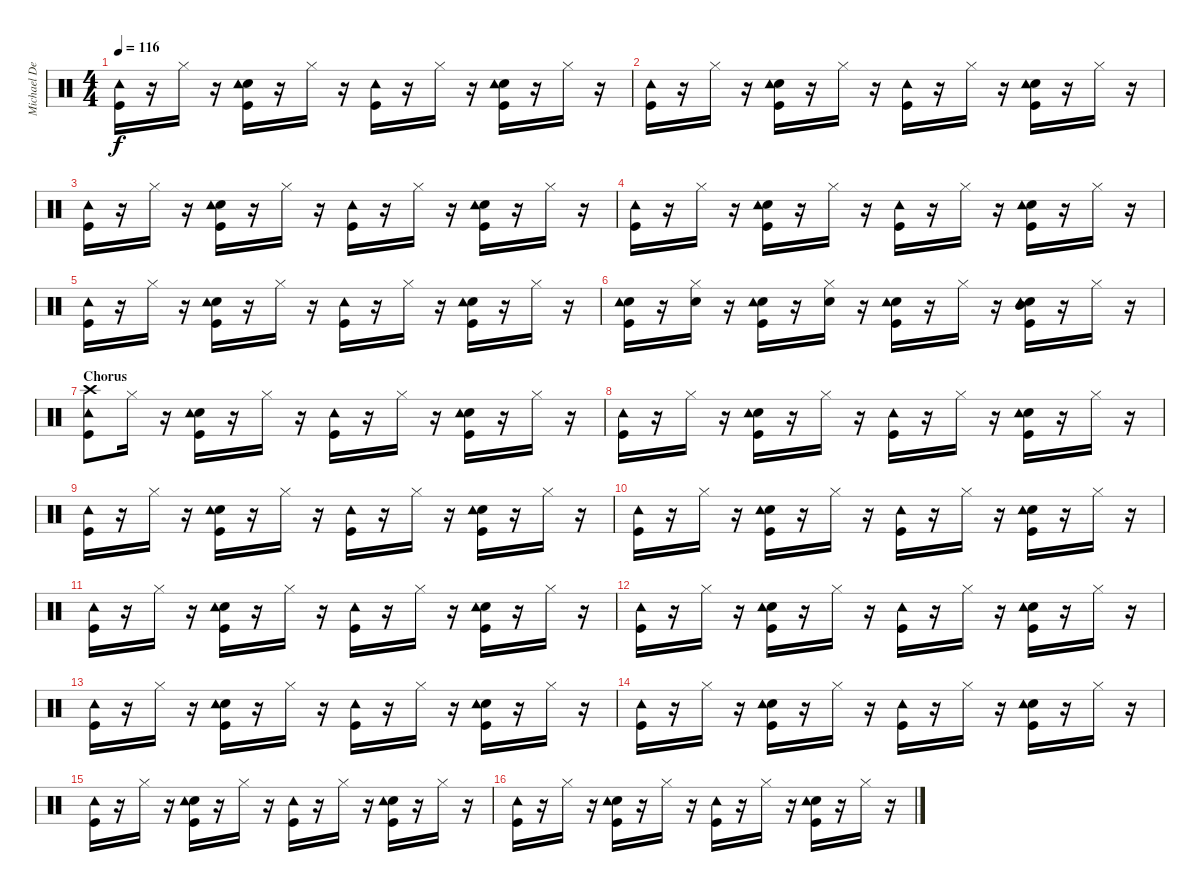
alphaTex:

\track ("Michael DeRosier" "Michael De") {instrument percussion}
\staff {score}
\articulation defaults
\ts (4 4)
\tempo 116
\clef neutral
\ks c
("Kick (hit)" "Tambourine (hit)").16{dy f} r.16 "Hi-Hat (closed)".16 r.16 ("Kick (hit)" "Electric Snare (hit)" "Tambourine (hit)").16 r.16 "Hi-Hat (closed)".16 r.16 ("Kick (hit)" "Tambourine (hit)").16 r.16 "Hi-Hat (closed)".16 r.16 ("Kick (hit)" "Electric Snare (hit)" "Tambourine (hit)").16 r.16 "Hi-Hat (closed)".16 r.16 |
("Kick (hit)" "Tambourine (hit)").16 r.16 "Hi-Hat (closed)".16 r.16 ("Kick (hit)" "Electric Snare (hit)" "Tambourine (hit)").16 r.16 "Hi-Hat (closed)".16 r.16 ("Kick (hit)" "Tambourine (hit)").16 r.16 "Hi-Hat (closed)".16 r.16 ("Kick (hit)" "Electric Snare (hit)" "Tambourine (hit)").16 r.16 "Hi-Hat (closed)".16 r.16 |
("Kick (hit)" "Tambourine (hit)").16 r.16 "Hi-Hat (closed)".16 r.16 ("Kick (hit)" "Electric Snare (hit)" "Tambourine (hit)").16 r.16 "Hi-Hat (closed)".16 r.16 ("Kick (hit)" "Tambourine (hit)").16 r.16 "Hi-Hat (closed)".16 r.16 ("Kick (hit)" "Electric Snare (hit)" "Tambourine (hit)").16 r.16 "Hi-Hat (closed)".16 r.16 |
("Kick (hit)" "Tambourine (hit)").16 r.16 "Hi-Hat (closed)".16 r.16 ("Kick (hit)" "Electric Snare (hit)" "Tambourine (hit)").16 r.16 "Hi-Hat (closed)".16 r.16 ("Kick (hit)" "Tambourine (hit)").16 r.16 "Hi-Hat (closed)".16 r.16 ("Kick (hit)" "Electric Snare (hit)" "Tambourine (hit)").16 r.16 "Hi-Hat (closed)".16 r.16 |
("Kick (hit)" "Tambourine (hit)").16 r.16 "Hi-Hat (closed)".16 r.16 ("Kick (hit)" "Electric Snare (hit)" "Tambourine (hit)").16 r.16 "Hi-Hat (closed)".16 r.16 ("Kick (hit)" "Tambourine (hit)").16 r.16 "Hi-Hat (closed)".16 r.16 ("Kick (hit)" "Electric Snare (hit)" "Tambourine (hit)").16 r.16 "Hi-Hat (closed)".16 r.16 |
("Kick (hit)" "Electric Snare (hit)" "Tambourine (hit)").16 r.16 ("Electric Snare (hit)" "Hi-Hat (closed)").16 r.16 ("Kick (hit)" "Electric Snare (hit)" "Tambourine (hit)").16 r.16 ("Electric Snare (hit)" "Hi-Hat (closed)").16 r.16 ("Kick (hit)" "Electric Snare (hit)" "Tambourine (hit)").16 r.16 "Hi-Hat (closed)".16 r.16 ("Kick (hit)" "Electric Snare (hit)" "Mid Tom (hit)" "Tambourine (hit)").16 r.16 "Hi-Hat (closed)".16 r.16 |
\section ("" "Chorus")
("Kick (hit)" "Crash high (hit)" "Tambourine (hit)").8 "Hi-Hat (closed)".16 r.16 ("Kick (hit)" "Electric Snare (hit)" "Tambourine (hit)").16 r.16 "Hi-Hat (closed)".16 r.16 ("Kick (hit)" "Tambourine (hit)").16 r.16 "Hi-Hat (closed)".16 r.16 ("Kick (hit)" "Electric Snare (hit)" "Tambourine (hit)").16 r.16 "Hi-Hat (closed)".16 r.16 |
("Kick (hit)" "Tambourine (hit)").16 r.16 "Hi-Hat (closed)".16 r.16 ("Kick (hit)" "Electric Snare (hit)" "Tambourine (hit)").16 r.16 "Hi-Hat (closed)".16 r.16 ("Kick (hit)" "Tambourine (hit)").16 r.16 "Hi-Hat (closed)".16 r.16 ("Kick (hit)" "Electric Snare (hit)" "Tambourine (hit)").16 r.16 "Hi-Hat (closed)".16 r.16 |
("Kick (hit)" "Tambourine (hit)").16 r.16 "Hi-Hat (closed)".16 r.16 ("Kick (hit)" "Electric Snare (hit)" "Tambourine (hit)").16 r.16 "Hi-Hat (closed)".16 r.16 ("Kick (hit)" "Tambourine (hit)").16 r.16 "Hi-Hat (closed)".16 r.16 ("Kick (hit)" "Electric Snare (hit)" "Tambourine (hit)").16 r.16 "Hi-Hat (closed)".16 r.16 |
("Kick (hit)" "Tambourine (hit)").16 r.16 "Hi-Hat (closed)".16 r.16 ("Kick (hit)" "Electric Snare (hit)" "Tambourine (hit)").16 r.16 "Hi-Hat (closed)".16 r.16 ("Kick (hit)" "Tambourine (hit)").16 r.16 "Hi-Hat (closed)".16 r.16 ("Kick (hit)" "Electric Snare (hit)" "Tambourine (hit)").16 r.16 "Hi-Hat (closed)".16 r.16 |
("Kick (hit)" "Tambourine (hit)").16 r.16 "Hi-Hat (closed)".16 r.16 ("Kick (hit)" "Electric Snare (hit)" "Tambourine (hit)").16 r.16 "Hi-Hat (closed)".16 r.16 ("Kick (hit)" "Tambourine (hit)").16 r.16 "Hi-Hat (closed)".16 r.16 ("Kick (hit)" "Electric Snare (hit)" "Tambourine (hit)").16 r.16 "Hi-Hat (closed)".16 r.16 |
("Kick (hit)" "Tambourine (hit)").16 r.16 "Hi-Hat (closed)".16 r.16 ("Kick (hit)" "Electric Snare (hit)" "Tambourine (hit)").16 r.16 "Hi-Hat (closed)".16 r.16 ("Kick (hit)" "Tambourine (hit)").16 r.16 "Hi-Hat (closed)".16 r.16 ("Kick (hit)" "Electric Snare (hit)" "Tambourine (hit)").16 r.16 "Hi-Hat (closed)".16 r.16 |
("Kick (hit)" "Tambourine (hit)").16 r.16 "Hi-Hat (closed)".16 r.16 ("Kick (hit)" "Electric Snare (hit)" "Tambourine (hit)").16 r.16 "Hi-Hat (closed)".16 r.16 ("Kick (hit)" "Tambourine (hit)").16 r.16 "Hi-Hat (closed)".16 r.16 ("Kick (hit)" "Electric Snare (hit)" "Tambourine (hit)").16 r.16 "Hi-Hat (closed)".16 r.16 |
("Kick (hit)" "Tambourine (hit)").16 r.16 "Hi-Hat (closed)".16 r.16 ("Kick (hit)" "Electric Snare (hit)" "Tambourine (hit)").16 r.16 "Hi-Hat (closed)".16 r.16 ("Kick (hit)" "Tambourine (hit)").16 r.16 "Hi-Hat (closed)".16 r.16 ("Kick (hit)" "Electric Snare (hit)" "Tambourine (hit)").16 r.16 "Hi-Hat (closed)".16 r.16 |
("Kick (hit)" "Tambourine (hit)").16 r.16 "Hi-Hat (closed)".16 r.16 ("Kick (hit)" "Electric Snare (hit)" "Tambourine (hit)").16 r.16 "Hi-Hat (closed)".16 r.16 ("Kick (hit)" "Tambourine (hit)").16 r.16 "Hi-Hat (closed)".16 r.16 ("Kick (hit)" "Electric Snare (hit)" "Tambourine (hit)").16 r.16 "Hi-Hat (closed)".16 r.16 |
("Kick (hit)" "Tambourine (hit)").16 r.16 "Hi-Hat (closed)".16 r.16 ("Kick (hit)" "Electric Snare (hit)" "Tambourine (hit)").16 r.16 "Hi-Hat (closed)".16 r.16 ("Kick (hit)" "Tambourine (hit)").16 r.16 "Hi-Hat (closed)".16 r.16 ("Kick (hit)" "Electric Snare (hit)" "Tambourine (hit)").16 r.16 "Hi-Hat (closed)".16 r.16
